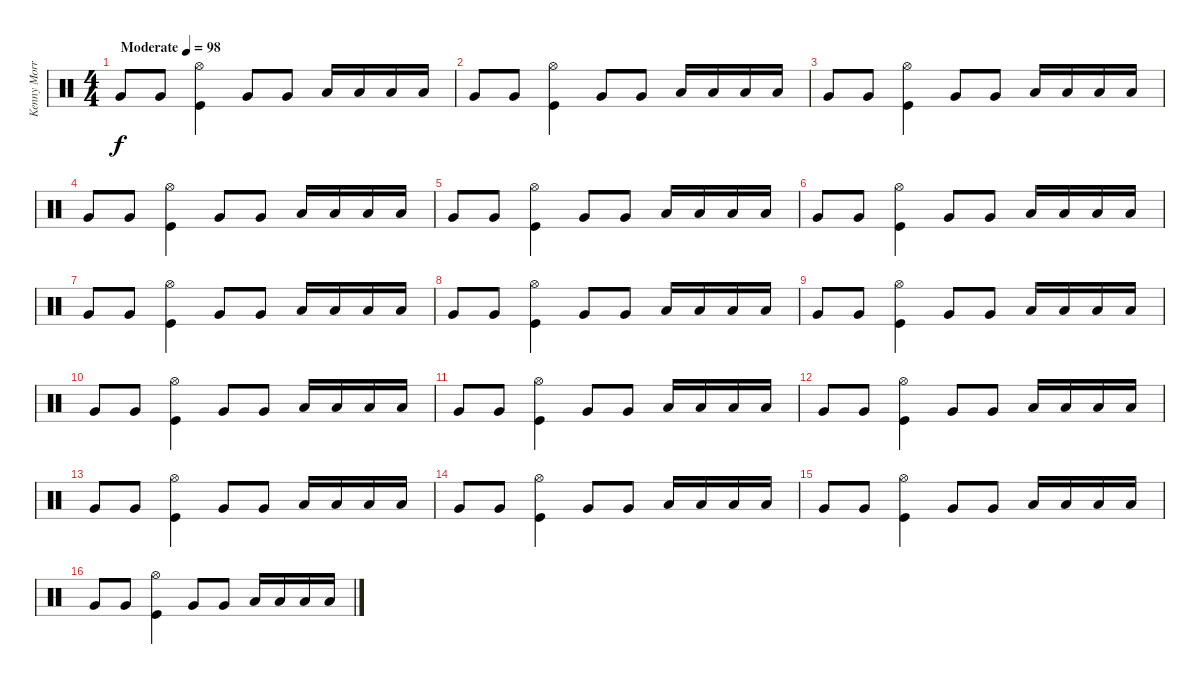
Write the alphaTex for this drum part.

\track ("Kenny Morris" "Kenny Morr") {instrument percussion}
\staff {score}
\articulation defaults
\ts (4 4)
\tempo (98 "Moderate")
\clef neutral
\ks c "Very Low Tom (hit)".8{dy f} "Very Low Tom (hit)".8
("Hi-Hat (open)" "Kick (hit)").4 "Very Low Tom (hit)".8 "Very Low Tom (hit)".8 "Low Tom (hit)".16 "Low Tom (hit)".16 "Low Tom (hit)".16 "Low Tom (hit)".16 |
"Very Low Tom (hit)".8 "Very Low Tom (hit)".8 ("Hi-Hat (open)" "Kick (hit)").4 "Very Low Tom (hit)".8 "Very Low Tom (hit)".8 "Low Tom (hit)".16 "Low Tom (hit)".16 "Low Tom (hit)".16 "Low Tom (hit)".16 |
"Very Low Tom (hit)".8 "Very Low Tom (hit)".8 ("Hi-Hat (open)" "Kick (hit)").4 "Very Low Tom (hit)".8 "Very Low Tom (hit)".8 "Low Tom (hit)".16 "Low Tom (hit)".16 "Low Tom (hit)".16 "Low Tom (hit)".16 |
"Very Low Tom (hit)".8 "Very Low Tom (hit)".8 ("Hi-Hat (open)" "Kick (hit)").4 "Very Low Tom (hit)".8 "Very Low Tom (hit)".8 "Low Tom (hit)".16 "Low Tom (hit)".16 "Low Tom (hit)".16 "Low Tom (hit)".16 |
"Very Low Tom (hit)".8 "Very Low Tom (hit)".8 ("Hi-Hat (open)" "Kick (hit)").4 "Very Low Tom (hit)".8 "Very Low Tom (hit)".8 "Low Tom (hit)".16 "Low Tom (hit)".16 "Low Tom (hit)".16 "Low Tom (hit)".16 |
"Very Low Tom (hit)".8 "Very Low Tom (hit)".8 ("Hi-Hat (open)" "Kick (hit)").4 "Very Low Tom (hit)".8 "Very Low Tom (hit)".8 "Low Tom (hit)".16 "Low Tom (hit)".16 "Low Tom (hit)".16 "Low Tom (hit)".16 |
"Very Low Tom (hit)".8 "Very Low Tom (hit)".8 ("Hi-Hat (open)" "Kick (hit)").4 "Very Low Tom (hit)".8 "Very Low Tom (hit)".8 "Low Tom (hit)".16 "Low Tom (hit)".16 "Low Tom (hit)".16 "Low Tom (hit)".16 |
"Very Low Tom (hit)".8 "Very Low Tom (hit)".8 ("Hi-Hat (open)" "Kick (hit)").4 "Very Low Tom (hit)".8 "Very Low Tom (hit)".8 "Low Tom (hit)".16 "Low Tom (hit)".16 "Low Tom (hit)".16 "Low Tom (hit)".16 |
"Very Low Tom (hit)".8 "Very Low Tom (hit)".8 ("Hi-Hat (open)" "Kick (hit)").4 "Very Low Tom (hit)".8 "Very Low Tom (hit)".8 "Low Tom (hit)".16 "Low Tom (hit)".16 "Low Tom (hit)".16 "Low Tom (hit)".16 |
"Very Low Tom (hit)".8 "Very Low Tom (hit)".8 ("Hi-Hat (open)" "Kick (hit)").4 "Very Low Tom (hit)".8 "Very Low Tom (hit)".8 "Low Tom (hit)".16 "Low Tom (hit)".16 "Low Tom (hit)".16 "Low Tom (hit)".16 |
"Very Low Tom (hit)".8 "Very Low Tom (hit)".8 ("Hi-Hat (open)" "Kick (hit)").4 "Very Low Tom (hit)".8 "Very Low Tom (hit)".8 "Low Tom (hit)".16 "Low Tom (hit)".16 "Low Tom (hit)".16 "Low Tom (hit)".16 |
"Very Low Tom (hit)".8 "Very Low Tom (hit)".8 ("Hi-Hat (open)" "Kick (hit)").4 "Very Low Tom (hit)".8 "Very Low Tom (hit)".8 "Low Tom (hit)".16 "Low Tom (hit)".16 "Low Tom (hit)".16 "Low Tom (hit)".16 |
"Very Low Tom (hit)".8 "Very Low Tom (hit)".8 ("Hi-Hat (open)" "Kick (hit)").4 "Very Low Tom (hit)".8 "Very Low Tom (hit)".8 "Low Tom (hit)".16 "Low Tom (hit)".16 "Low Tom (hit)".16 "Low Tom (hit)".16 |
"Very Low Tom (hit)".8 "Very Low Tom (hit)".8 ("Hi-Hat (open)" "Kick (hit)").4 "Very Low Tom (hit)".8 "Very Low Tom (hit)".8 "Low Tom (hit)".16 "Low Tom (hit)".16 "Low Tom (hit)".16 "Low Tom (hit)".16 |
"Very Low Tom (hit)".8 "Very Low Tom (hit)".8 ("Hi-Hat (open)" "Kick (hit)").4 "Very Low Tom (hit)".8 "Very Low Tom (hit)".8 "Low Tom (hit)".16 "Low Tom (hit)".16 "Low Tom (hit)".16 "Low Tom (hit)".16 |
"Very Low Tom (hit)".8 "Very Low Tom (hit)".8 ("Hi-Hat (open)" "Kick (hit)").4 "Very Low Tom (hit)".8 "Very Low Tom (hit)".8 "Low Tom (hit)".16 "Low Tom (hit)".16 "Low Tom (hit)".16 "Low Tom (hit)".16
